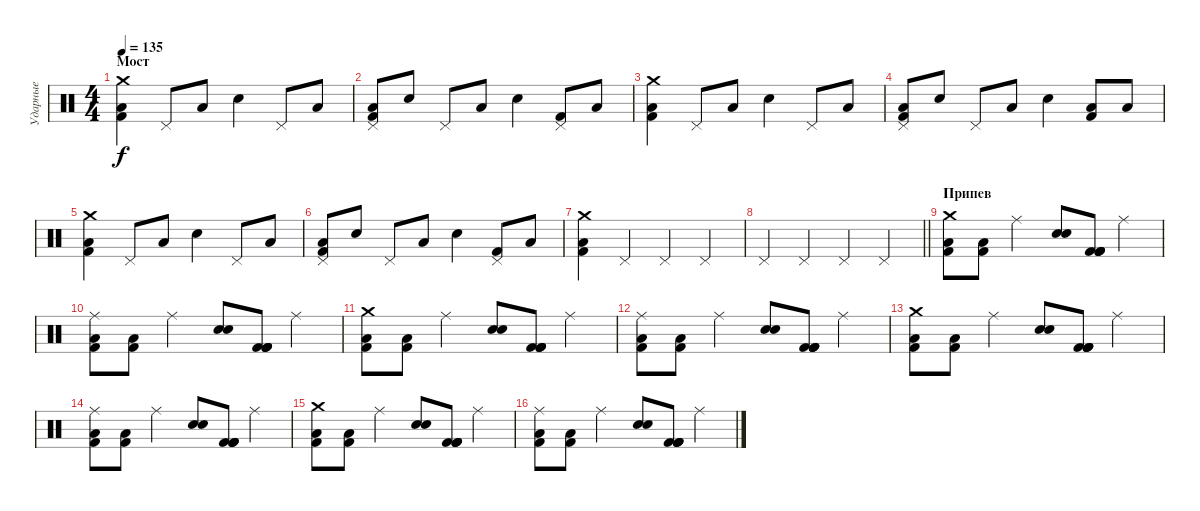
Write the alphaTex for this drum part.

\track ("Ударные" "Ударные") {instrument percussion}
\staff {score}
\articulation defaults
\ts (4 4)
\section ("" "Мост")
\tempo 135
\clef neutral
\ks c
("Low Floor Tom (hit)" "Kick (hit) 2" "Crash medium (hit)").4{dy f} "Pedal Hi-Hat (hit)".8 "Low Floor Tom (hit)".8 "Electric Snare (hit)".4 "Pedal Hi-Hat (hit)".8 "Low Floor Tom (hit)".8 |
("Low Floor Tom (hit)" "Kick (hit) 2" "Pedal Hi-Hat (hit)").8 "Electric Snare (hit)".8 "Pedal Hi-Hat (hit)".8 "Low Floor Tom (hit)".8 "Electric Snare (hit)".4 ("Pedal Hi-Hat (hit)" "Kick (hit) 2").8 "Low Floor Tom (hit)".8 |
("Low Floor Tom (hit)" "Kick (hit) 2" "Crash medium (hit)").4 "Pedal Hi-Hat (hit)".8 "Low Floor Tom (hit)".8 "Electric Snare (hit)".4 "Pedal Hi-Hat (hit)".8 "Low Floor Tom (hit)".8 |
("Low Floor Tom (hit)" "Kick (hit) 2" "Pedal Hi-Hat (hit)").8 "Electric Snare (hit)".8 "Pedal Hi-Hat (hit)".8 "Low Floor Tom (hit)".8 "Electric Snare (hit)".4 ("Low Floor Tom (hit)" "Kick (hit) 2").8 "Low Floor Tom (hit)".8 |
("Low Floor Tom (hit)" "Kick (hit) 2" "Crash medium (hit)").4 "Pedal Hi-Hat (hit)".8 "Low Floor Tom (hit)".8 "Electric Snare (hit)".4 "Pedal Hi-Hat (hit)".8 "Low Floor Tom (hit)".8 |
("Low Floor Tom (hit)" "Kick (hit) 2" "Pedal Hi-Hat (hit)").8 "Electric Snare (hit)".8 "Pedal Hi-Hat (hit)".8 "Low Floor Tom (hit)".8 "Electric Snare (hit)".4 ("Pedal Hi-Hat (hit)" "Kick (hit) 2").8 "Low Floor Tom (hit)".8 |
("Low Floor Tom (hit)" "Kick (hit) 2" "Crash medium (hit)").4 "Pedal Hi-Hat (hit)".4 "Pedal Hi-Hat (hit)".4 "Pedal Hi-Hat (hit)".4 |
\barLineRight lightlight "Pedal Hi-Hat (hit)".4 "Pedal Hi-Hat (hit)".4 "Pedal Hi-Hat (hit)".4 "Pedal Hi-Hat (hit)".4
|
\section ("" "Припев")
("Kick (hit) 2" "Low Floor Tom (hit)" "Crash medium (hit)").8 ("Kick (hit) 2" "Low Floor Tom (hit)").8 "Ride (middle)".4 ("Electric Snare (hit)" "Snare (hit) 2").8 ("Kick (hit) 2" "Kick (hit) 2" "Kick (hit) 2" "Kick (hit) 2").8 "Ride (middle)".4 |
("Kick (hit) 2" "Low Floor Tom (hit)" "Ride (middle)").8 ("Kick (hit) 2" "Low Floor Tom (hit)").8 "Ride (middle)".4 ("Electric Snare (hit)" "Snare (hit) 2").8 ("Kick (hit) 2" "Kick (hit) 2" "Kick (hit) 2" "Kick (hit) 2").8 "Ride (middle)".4 |
("Kick (hit) 2" "Low Floor Tom (hit)" "Crash medium (hit)").8 ("Kick (hit) 2" "Low Floor Tom (hit)").8 "Ride (middle)".4 ("Electric Snare (hit)" "Snare (hit) 2").8 ("Kick (hit) 2" "Kick (hit) 2" "Kick (hit) 2" "Kick (hit) 2").8 "Ride (middle)".4 |
("Kick (hit) 2" "Low Floor Tom (hit)" "Ride (middle)").8 ("Kick (hit) 2" "Low Floor Tom (hit)").8 "Ride (middle)".4 ("Electric Snare (hit)" "Snare (hit) 2").8 ("Kick (hit) 2" "Kick (hit) 2" "Kick (hit) 2" "Kick (hit) 2").8 "Ride (middle)".4 |
("Kick (hit) 2" "Low Floor Tom (hit)" "Crash medium (hit)").8 ("Kick (hit) 2" "Low Floor Tom (hit)").8 "Ride (middle)".4 ("Electric Snare (hit)" "Snare (hit) 2").8 ("Kick (hit) 2" "Kick (hit) 2" "Kick (hit) 2" "Kick (hit) 2").8 "Ride (middle)".4 |
("Kick (hit) 2" "Low Floor Tom (hit)" "Ride (middle)").8 ("Kick (hit) 2" "Low Floor Tom (hit)").8 "Ride (middle)".4 ("Electric Snare (hit)" "Snare (hit) 2").8 ("Kick (hit) 2" "Kick (hit) 2" "Kick (hit) 2" "Kick (hit) 2").8 "Ride (middle)".4 |
("Kick (hit) 2" "Low Floor Tom (hit)" "Crash medium (hit)").8 ("Kick (hit) 2" "Low Floor Tom (hit)").8 "Ride (middle)".4 ("Electric Snare (hit)" "Snare (hit) 2").8 ("Kick (hit) 2" "Kick (hit) 2" "Kick (hit) 2" "Kick (hit) 2").8 "Ride (middle)".4 |
("Kick (hit) 2" "Low Floor Tom (hit)" "Ride (middle)").8 ("Kick (hit) 2" "Low Floor Tom (hit)").8 "Ride (middle)".4 ("Electric Snare (hit)" "Snare (hit) 2").8 ("Kick (hit) 2" "Kick (hit) 2" "Kick (hit) 2" "Kick (hit) 2").8 "Ride (middle)".4
